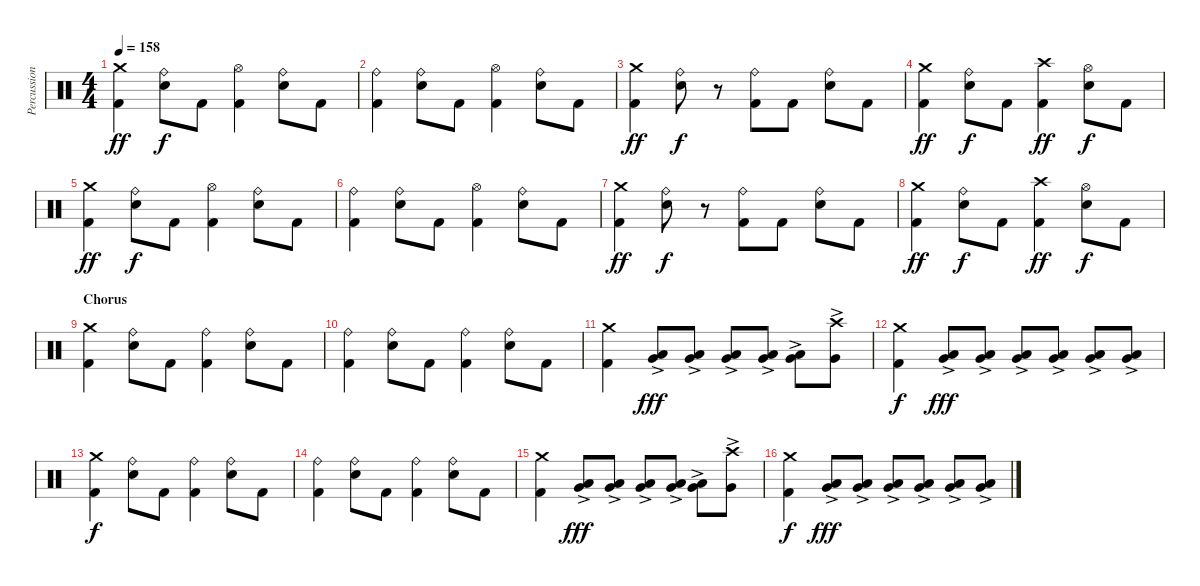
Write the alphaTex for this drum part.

\track ("Percussion" "Percussion") {instrument percussion}
\staff {score}
\articulation defaults
\ts (4 4)
\tempo 158
\clef neutral
\ks c
("Kick (hit) 2" "Crash medium (hit)").4{dy ff} ("Electric Snare (hit)" "Ride (bell)").8{dy f} "Kick (hit) 2".8 ("Kick (hit) 2" "Hi-Hat (open)").4 ("Electric Snare (hit)" "Ride (bell)").8 "Kick (hit) 2".8 |
("Kick (hit) 2" "Ride (bell)").4 ("Electric Snare (hit)" "Ride (bell)").8 "Kick (hit) 2".8 ("Kick (hit) 2" "Hi-Hat (open)").4 ("Electric Snare (hit)" "Ride (bell)").8 "Kick (hit) 2".8 |
("Kick (hit) 2" "Crash medium (hit)").4{dy ff} ("Electric Snare (hit)" "Ride (bell)").8{dy f} r.8 ("Kick (hit) 2" "Ride (bell)").8 "Kick (hit) 2".8 ("Electric Snare (hit)" "Ride (bell)").8 "Kick (hit) 2".8 |
("Kick (hit) 2" "Crash medium (hit)").4{dy ff} ("Electric Snare (hit)" "Ride (bell)").8{dy f} "Kick (hit) 2".8 ("Kick (hit) 2" "Crash high (hit)").4{dy ff} ("Electric Snare (hit)" "Hi-Hat (open)").8{dy f} "Kick (hit) 2".8 |
("Kick (hit) 2" "Crash medium (hit)").4{dy ff} ("Electric Snare (hit)" "Ride (bell)").8{dy f} "Kick (hit) 2".8 ("Kick (hit) 2" "Hi-Hat (open)").4 ("Electric Snare (hit)" "Ride (bell)").8 "Kick (hit) 2".8 |
("Kick (hit) 2" "Ride (bell)").4 ("Electric Snare (hit)" "Ride (bell)").8 "Kick (hit) 2".8 ("Kick (hit) 2" "Hi-Hat (open)").4 ("Electric Snare (hit)" "Ride (bell)").8 "Kick (hit) 2".8 |
("Kick (hit) 2" "Crash medium (hit)").4{dy ff} ("Electric Snare (hit)" "Ride (bell)").8{dy f} r.8 ("Kick (hit) 2" "Ride (bell)").8 "Kick (hit) 2".8 ("Electric Snare (hit)" "Ride (bell)").8 "Kick (hit) 2".8 |
("Kick (hit) 2" "Crash medium (hit)").4{dy ff} ("Electric Snare (hit)" "Ride (bell)").8{dy f} "Kick (hit) 2".8 ("Kick (hit) 2" "Crash high (hit)").4{dy ff} ("Electric Snare (hit)" "Hi-Hat (open)").8{dy f} "Kick (hit) 2".8 |
\section ("" "Chorus")
("Kick (hit) 2" "Crash medium (hit)").4 ("Electric Snare (hit)" "Ride (bell)").8 "Kick (hit) 2".8 ("Kick (hit) 2" "Ride (bell)").4 ("Electric Snare (hit)" "Ride (bell)").8 "Kick (hit) 2".8 |
("Kick (hit) 2" "Ride (bell)").4 ("Electric Snare (hit)" "Ride (bell)").8 "Kick (hit) 2".8 ("Kick (hit) 2" "Ride (bell)").4 ("Electric Snare (hit)" "Ride (bell)").8 "Kick (hit) 2".8 |
("Kick (hit) 2" "Crash medium (hit)").4 ("Low Tom (hit)"{ac} "Very Low Tom (hit)"{ac}).8{dy fff} ("Low Tom (hit)"{ac} "Very Low Tom (hit)"{ac}).8 ("Low Tom (hit)"{ac} "Very Low Tom (hit)"{ac}).8 ("Low Tom (hit)"{ac} "Very Low Tom (hit)"{ac}).8 ("Low Tom (hit)"{ac} "Very Low Tom (hit)"{ac}).8 ("Very Low Tom (hit)"{ac} "Crash high (hit)").8 |
("Kick (hit) 2" "Crash medium (hit)").4{dy f} ("Low Tom (hit)"{ac} "Very Low Tom (hit)"{ac}).8{dy fff} ("Low Tom (hit)"{ac} "Very Low Tom (hit)"{ac}).8 ("Low Tom (hit)"{ac} "Very Low Tom (hit)"{ac}).8 ("Low Tom (hit)"{ac} "Very Low Tom (hit)"{ac}).8 ("Low Tom (hit)"{ac} "Very Low Tom (hit)"{ac}).8 ("Low Tom (hit)"{ac} "Very Low Tom (hit)"{ac}).8 |
("Kick (hit) 2" "Crash medium (hit)").4{dy f} ("Electric Snare (hit)" "Ride (bell)").8 "Kick (hit) 2".8 ("Kick (hit) 2" "Ride (bell)").4 ("Electric Snare (hit)" "Ride (bell)").8 "Kick (hit) 2".8 |
("Kick (hit) 2" "Ride (bell)").4 ("Electric Snare (hit)" "Ride (bell)").8 "Kick (hit) 2".8 ("Kick (hit) 2" "Ride (bell)").4 ("Electric Snare (hit)" "Ride (bell)").8 "Kick (hit) 2".8 |
("Kick (hit) 2" "Crash medium (hit)").4 ("Low Tom (hit)"{ac} "Very Low Tom (hit)"{ac}).8{dy fff} ("Low Tom (hit)"{ac} "Very Low Tom (hit)"{ac}).8 ("Low Tom (hit)"{ac} "Very Low Tom (hit)"{ac}).8 ("Low Tom (hit)"{ac} "Very Low Tom (hit)"{ac}).8 ("Low Tom (hit)"{ac} "Very Low Tom (hit)"{ac}).8 ("Very Low Tom (hit)"{ac} "Crash high (hit)").8 |
("Kick (hit) 2" "Crash medium (hit)").4{dy f} ("Low Tom (hit)"{ac} "Very Low Tom (hit)"{ac}).8{dy fff} ("Low Tom (hit)"{ac} "Very Low Tom (hit)"{ac}).8 ("Low Tom (hit)"{ac} "Very Low Tom (hit)"{ac}).8 ("Low Tom (hit)"{ac} "Very Low Tom (hit)"{ac}).8 ("Low Tom (hit)"{ac} "Very Low Tom (hit)"{ac}).8 ("Low Tom (hit)"{ac} "Very Low Tom (hit)"{ac}).8
